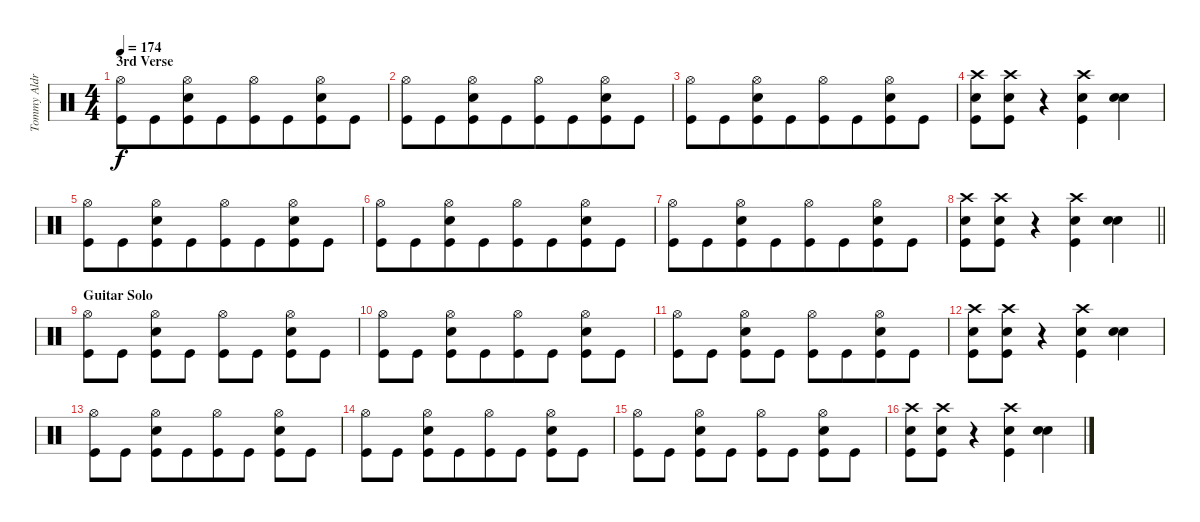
\track ("Tommy Aldrige" "Tommy Aldr") {instrument percussion}
\staff {score}
\articulation defaults
\ts (4 4)
\section ("" "3rd Verse")
\tempo 174
\clef neutral
\ks c
("Hi-Hat (open)" "Kick (hit)").8{dy f beam merge} "Kick (hit)".8{beam merge} ("Hi-Hat (open)" "Kick (hit)" "Snare (hit) 2").8{beam merge} "Kick (hit)".8{beam merge} ("Hi-Hat (open)" "Kick (hit)").8{beam merge} "Kick (hit)".8{beam merge} ("Hi-Hat (open)" "Kick (hit)" "Snare (hit) 2").8{beam merge} "Kick (hit)".8 |
("Hi-Hat (open)" "Kick (hit)").8{beam merge} "Kick (hit)".8{beam merge} ("Hi-Hat (open)" "Kick (hit)" "Snare (hit) 2").8{beam merge} "Kick (hit)".8{beam merge} ("Hi-Hat (open)" "Kick (hit)").8{beam merge} "Kick (hit)".8{beam merge} ("Hi-Hat (open)" "Kick (hit)" "Snare (hit) 2").8{beam merge} "Kick (hit)".8 |
("Hi-Hat (open)" "Kick (hit)").8{beam merge} "Kick (hit)".8{beam merge} ("Hi-Hat (open)" "Kick (hit)" "Snare (hit) 2").8{beam merge} "Kick (hit)".8{beam merge} ("Hi-Hat (open)" "Kick (hit)").8{beam merge} "Kick (hit)".8{beam merge} ("Hi-Hat (open)" "Kick (hit)" "Snare (hit) 2").8{beam merge} "Kick (hit)".8 |
("Crash high (hit)" "Kick (hit)" "Snare (hit) 2").8 ("Crash high (hit)" "Kick (hit)" "Snare (hit) 2").8 r.4{beam merge} ("Crash high (hit)" "Kick (hit)" "Snare (hit) 2").4{beam merge} ("Snare (hit) 2" "Snare (hit) 2").4{bu 240} |
("Hi-Hat (open)" "Kick (hit)").8{beam merge} "Kick (hit)".8{beam merge} ("Hi-Hat (open)" "Kick (hit)" "Snare (hit) 2").8{beam merge} "Kick (hit)".8{beam merge} ("Hi-Hat (open)" "Kick (hit)").8{beam merge} "Kick (hit)".8{beam merge} ("Hi-Hat (open)" "Kick (hit)" "Snare (hit) 2").8{beam merge} "Kick (hit)".8 |
("Hi-Hat (open)" "Kick (hit)").8{beam merge} "Kick (hit)".8{beam merge} ("Hi-Hat (open)" "Kick (hit)" "Snare (hit) 2").8{beam merge} "Kick (hit)".8{beam merge} ("Hi-Hat (open)" "Kick (hit)").8{beam merge} "Kick (hit)".8{beam merge} ("Hi-Hat (open)" "Kick (hit)" "Snare (hit) 2").8{beam merge} "Kick (hit)".8 |
("Hi-Hat (open)" "Kick (hit)").8{beam merge} "Kick (hit)".8{beam merge} ("Hi-Hat (open)" "Kick (hit)" "Snare (hit) 2").8{beam merge} "Kick (hit)".8{beam merge} ("Hi-Hat (open)" "Kick (hit)").8{beam merge} "Kick (hit)".8{beam merge} ("Hi-Hat (open)" "Kick (hit)" "Snare (hit) 2").8{beam merge} "Kick (hit)".8 |
\barLineRight lightlight
("Crash high (hit)" "Kick (hit)" "Snare (hit) 2").8{beam merge} ("Crash high (hit)" "Kick (hit)" "Snare (hit) 2").8 r.4 ("Crash high (hit)" "Kick (hit)" "Snare (hit) 2").4{beam merge} ("Snare (hit) 2" "Snare (hit) 2").4{bu 240} |
\section ("" "Guitar Solo")
("Hi-Hat (open)" "Kick (hit)").8 "Kick (hit)".8 ("Hi-Hat (open)" "Kick (hit)" "Snare (hit) 2").8 "Kick (hit)".8 ("Hi-Hat (open)" "Kick (hit)").8 "Kick (hit)".8 ("Hi-Hat (open)" "Kick (hit)" "Snare (hit) 2").8 "Kick (hit)".8 |
("Hi-Hat (open)" "Kick (hit)").8 "Kick (hit)".8 ("Hi-Hat (open)" "Kick (hit)" "Snare (hit) 2").8 "Kick (hit)".8{beam merge} ("Hi-Hat (open)" "Kick (hit)").8 "Kick (hit)".8 ("Hi-Hat (open)" "Kick (hit)" "Snare (hit) 2").8 "Kick (hit)".8 |
("Hi-Hat (open)" "Kick (hit)").8 "Kick (hit)".8 ("Hi-Hat (open)" "Kick (hit)" "Snare (hit) 2").8 "Kick (hit)".8 ("Hi-Hat (open)" "Kick (hit)").8 "Kick (hit)".8{beam merge} ("Hi-Hat (open)" "Kick (hit)" "Snare (hit) 2").8{beam merge} "Kick (hit)".8 |
("Crash high (hit)" "Kick (hit)" "Snare (hit) 2").8 ("Crash high (hit)" "Kick (hit)" "Snare (hit) 2").8 r.4 ("Crash high (hit)" "Kick (hit)" "Snare (hit) 2").4 ("Snare (hit) 2" "Snare (hit) 2").4{bu 240} |
("Hi-Hat (open)" "Kick (hit)").8{beam merge} "Kick (hit)".8 ("Hi-Hat (open)" "Kick (hit)" "Snare (hit) 2").8 "Kick (hit)".8{beam merge} ("Hi-Hat (open)" "Kick (hit)").8 "Kick (hit)".8 ("Hi-Hat (open)" "Kick (hit)" "Snare (hit) 2").8{beam merge} "Kick (hit)".8 |
("Hi-Hat (open)" "Kick (hit)").8 "Kick (hit)".8 ("Hi-Hat (open)" "Kick (hit)" "Snare (hit) 2").8 "Kick (hit)".8{beam merge} ("Hi-Hat (open)" "Kick (hit)").8 "Kick (hit)".8 ("Hi-Hat (open)" "Kick (hit)" "Snare (hit) 2").8 "Kick (hit)".8 |
("Hi-Hat (open)" "Kick (hit)").8 "Kick (hit)".8 ("Hi-Hat (open)" "Kick (hit)" "Snare (hit) 2").8{beam merge} "Kick (hit)".8 ("Hi-Hat (open)" "Kick (hit)").8{beam merge} "Kick (hit)".8 ("Hi-Hat (open)" "Kick (hit)" "Snare (hit) 2").8 "Kick (hit)".8 |
("Crash high (hit)" "Kick (hit)" "Snare (hit) 2").8{beam merge} ("Crash high (hit)" "Kick (hit)" "Snare (hit) 2").8 r.4 ("Crash high (hit)" "Kick (hit)" "Snare (hit) 2").4{beam merge} ("Snare (hit) 2" "Snare (hit) 2").4{bu 240}
